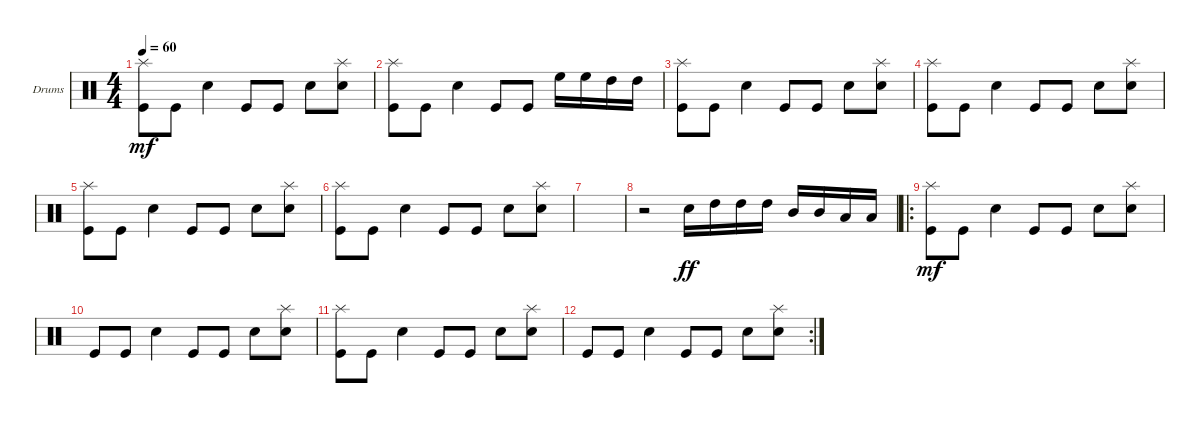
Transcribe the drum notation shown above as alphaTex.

\defaultSystemsLayout 4
\bracketExtendMode groupsimilarinstruments
\firstSystemTrackNameOrientation horizontal
\otherSystemsTrackNameOrientation horizontal
\track ("Kolya" "Drums") {instrument percussion}
\staff {score}
\articulation defaults
\ts (4 4)
\tempo 60
\clef neutral
\ks c
("Kick (hit)" "Splash (hit)").8{dy mf} "Kick (hit)".8 "Snare (hit) 2".4 "Kick (hit)".8 "Kick (hit)".8 "Snare (hit) 2".8 ("Snare (hit) 2" "Splash (hit)").8 |
("Kick (hit)" "Splash (hit)").8 "Kick (hit)".8 "Snare (hit) 2".4 "Kick (hit)".8 "Kick (hit)".8 "High Floor Tom (hit)".16 "High Floor Tom (hit)".16 "High Tom (hit)".16 "High Tom (hit)".16 |
("Kick (hit)" "Splash (hit)").8 "Kick (hit)".8 "Snare (hit) 2".4 "Kick (hit)".8 "Kick (hit)".8 "Snare (hit) 2".8 ("Snare (hit) 2" "Splash (hit)").8 |
("Kick (hit)" "Splash (hit)").8 "Kick (hit)".8 "Snare (hit) 2".4 "Kick (hit)".8 "Kick (hit)".8 "Snare (hit) 2".8 ("Snare (hit) 2" "Splash (hit)").8 |
("Kick (hit)" "Splash (hit)").8 "Kick (hit)".8 "Snare (hit) 2".4 "Kick (hit)".8 "Kick (hit)".8 "Snare (hit) 2".8 ("Snare (hit) 2" "Splash (hit)").8 |
("Kick (hit)" "Splash (hit)").8 "Kick (hit)".8 "Snare (hit) 2".4 "Kick (hit)".8 "Kick (hit)".8 "Snare (hit) 2".8 ("Snare (hit) 2" "Splash (hit)").8 |
|
r.2 "Snare (hit) 2".16{dy ff} "High Tom (hit)".16 "High Tom (hit)".16 "High Tom (hit)".16 "Mid Tom (hit)".16 "Mid Tom (hit)".16 "Low Tom (hit)".16 "Low Tom (hit)".16 |
\ro
("Kick (hit)" "Splash (hit)").8{dy mf} "Kick (hit)".8 "Snare (hit) 2".4 "Kick (hit)".8 "Kick (hit)".8 "Snare (hit) 2".8 ("Snare (hit) 2" "Splash (hit)").8 |
"Kick (hit)".8 "Kick (hit)".8 "Snare (hit) 2".4 "Kick (hit)".8 "Kick (hit)".8 "Snare (hit) 2".8 ("Snare (hit) 2" "Splash (hit)").8 |
("Kick (hit)" "Splash (hit)").8 "Kick (hit)".8 "Snare (hit) 2".4 "Kick (hit)".8 "Kick (hit)".8 "Snare (hit) 2".8 ("Snare (hit) 2" "Splash (hit)").8 |
\rc 2 "Kick (hit)".8 "Kick (hit)".8 "Snare (hit) 2".4 "Kick (hit)".8 "Kick (hit)".8 "Snare (hit) 2".8
("Snare (hit) 2" "Splash (hit)").8
